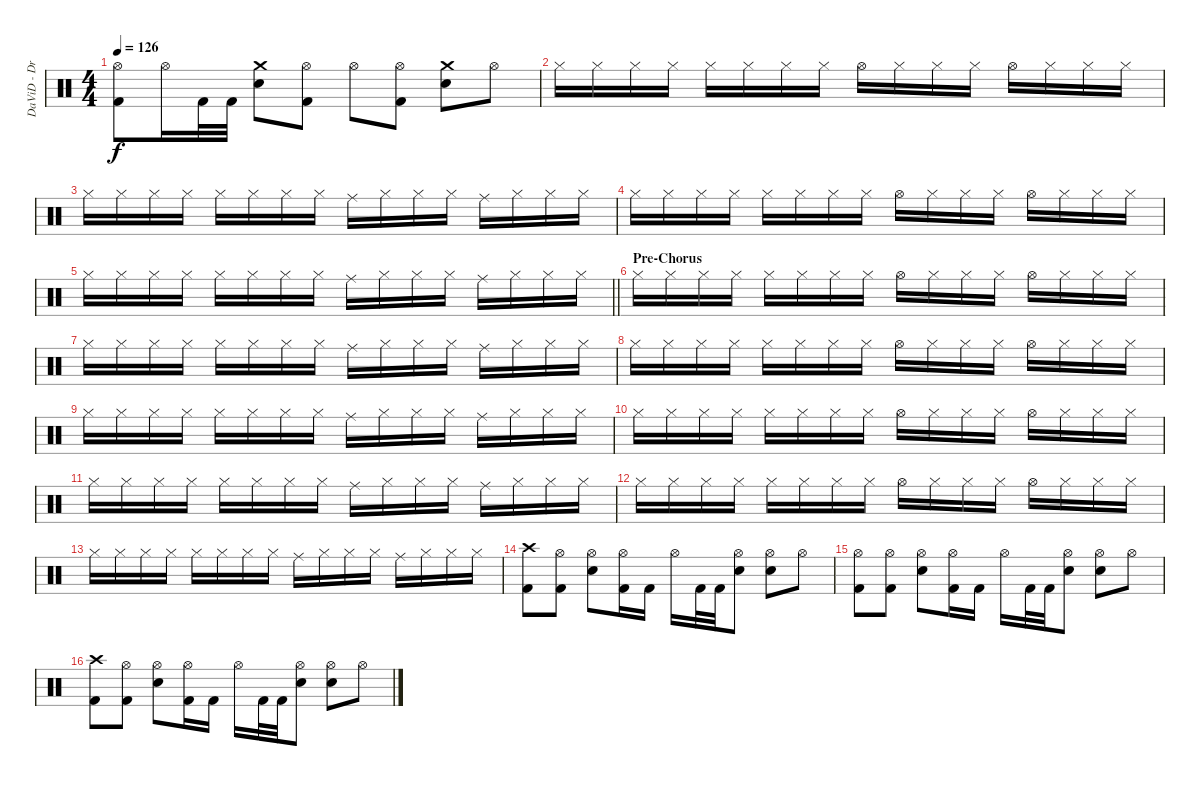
\track ("DaViD - DruMzZ" "DaViD - Dr") {instrument percussion}
\staff {score}
\articulation defaults
\ts (4 4)
\tempo 126
\clef neutral
\ks c
("Hi-Hat (open)" "Kick (hit) 2").8{dy f} "Hi-Hat (open)".16 "Kick (hit) 2".32 "Kick (hit) 2".32 ("Crash medium (hit)" "Snare (hit) 2").8 ("Hi-Hat (open)" "Kick (hit) 2").8 "Hi-Hat (open)".8 ("Hi-Hat (open)" "Kick (hit) 2").8 ("Crash medium (hit)" "Snare (hit) 2").8 "Hi-Hat (open)".8 |
"Hi-Hat (closed)".16 "Hi-Hat (closed)".16 "Hi-Hat (closed)".16 "Hi-Hat (closed)".16 "Hi-Hat (closed)".16 "Hi-Hat (closed)".16 "Hi-Hat (closed)".16 "Hi-Hat (closed)".16 "Hi-Hat (open)".16 "Hi-Hat (closed)".16 "Hi-Hat (closed)".16 "Hi-Hat (closed)".16 "Hi-Hat (open)".16 "Hi-Hat (closed)".16 "Hi-Hat (closed)".16 "Hi-Hat (closed)".16 |
"Hi-Hat (closed)".16 "Hi-Hat (closed)".16 "Hi-Hat (closed)".16 "Hi-Hat (closed)".16 "Hi-Hat (closed)".16 "Hi-Hat (closed)".16 "Hi-Hat (closed)".16 "Hi-Hat (closed)".16 "Ride (middle)".16 "Hi-Hat (closed)".16 "Hi-Hat (closed)".16 "Hi-Hat (closed)".16 "Ride (middle)".16 "Hi-Hat (closed)".16 "Hi-Hat (closed)".16 "Hi-Hat (closed)".16 |
"Hi-Hat (closed)".16 "Hi-Hat (closed)".16 "Hi-Hat (closed)".16 "Hi-Hat (closed)".16 "Hi-Hat (closed)".16 "Hi-Hat (closed)".16 "Hi-Hat (closed)".16 "Hi-Hat (closed)".16 "Hi-Hat (open)".16 "Hi-Hat (closed)".16 "Hi-Hat (closed)".16 "Hi-Hat (closed)".16 "Hi-Hat (open)".16 "Hi-Hat (closed)".16 "Hi-Hat (closed)".16 "Hi-Hat (closed)".16 |
\barLineRight lightlight "Hi-Hat (closed)".16 "Hi-Hat (closed)".16 "Hi-Hat (closed)".16 "Hi-Hat (closed)".16 "Hi-Hat (closed)".16 "Hi-Hat (closed)".16 "Hi-Hat (closed)".16 "Hi-Hat (closed)".16 "Ride (middle)".16 "Hi-Hat (closed)".16 "Hi-Hat (closed)".16 "Hi-Hat (closed)".16 "Ride (middle)".16 "Hi-Hat (closed)".16 "Hi-Hat (closed)".16 "Hi-Hat (closed)".16
|
\section ("" "Pre-Chorus")
"Hi-Hat (closed)".16 "Hi-Hat (closed)".16 "Hi-Hat (closed)".16 "Hi-Hat (closed)".16 "Hi-Hat (closed)".16 "Hi-Hat (closed)".16 "Hi-Hat (closed)".16 "Hi-Hat (closed)".16 "Hi-Hat (open)".16 "Hi-Hat (closed)".16 "Hi-Hat (closed)".16 "Hi-Hat (closed)".16 "Hi-Hat (open)".16 "Hi-Hat (closed)".16 "Hi-Hat (closed)".16 "Hi-Hat (closed)".16 |
"Hi-Hat (closed)".16 "Hi-Hat (closed)".16 "Hi-Hat (closed)".16 "Hi-Hat (closed)".16 "Hi-Hat (closed)".16 "Hi-Hat (closed)".16 "Hi-Hat (closed)".16 "Hi-Hat (closed)".16 "Ride (middle)".16 "Hi-Hat (closed)".16 "Hi-Hat (closed)".16 "Hi-Hat (closed)".16 "Ride (middle)".16 "Hi-Hat (closed)".16 "Hi-Hat (closed)".16 "Hi-Hat (closed)".16 |
"Hi-Hat (closed)".16 "Hi-Hat (closed)".16 "Hi-Hat (closed)".16 "Hi-Hat (closed)".16 "Hi-Hat (closed)".16 "Hi-Hat (closed)".16 "Hi-Hat (closed)".16 "Hi-Hat (closed)".16 "Hi-Hat (open)".16 "Hi-Hat (closed)".16 "Hi-Hat (closed)".16 "Hi-Hat (closed)".16 "Hi-Hat (open)".16 "Hi-Hat (closed)".16 "Hi-Hat (closed)".16 "Hi-Hat (closed)".16 |
"Hi-Hat (closed)".16 "Hi-Hat (closed)".16 "Hi-Hat (closed)".16 "Hi-Hat (closed)".16 "Hi-Hat (closed)".16 "Hi-Hat (closed)".16 "Hi-Hat (closed)".16 "Hi-Hat (closed)".16 "Ride (middle)".16 "Hi-Hat (closed)".16 "Hi-Hat (closed)".16 "Hi-Hat (closed)".16 "Ride (middle)".16 "Hi-Hat (closed)".16 "Hi-Hat (closed)".16 "Hi-Hat (closed)".16 |
"Hi-Hat (closed)".16 "Hi-Hat (closed)".16 "Hi-Hat (closed)".16 "Hi-Hat (closed)".16 "Hi-Hat (closed)".16 "Hi-Hat (closed)".16 "Hi-Hat (closed)".16 "Hi-Hat (closed)".16 "Hi-Hat (open)".16 "Hi-Hat (closed)".16 "Hi-Hat (closed)".16 "Hi-Hat (closed)".16 "Hi-Hat (open)".16 "Hi-Hat (closed)".16 "Hi-Hat (closed)".16 "Hi-Hat (closed)".16 |
"Hi-Hat (closed)".16 "Hi-Hat (closed)".16 "Hi-Hat (closed)".16 "Hi-Hat (closed)".16 "Hi-Hat (closed)".16 "Hi-Hat (closed)".16 "Hi-Hat (closed)".16 "Hi-Hat (closed)".16 "Ride (middle)".16 "Hi-Hat (closed)".16 "Hi-Hat (closed)".16 "Hi-Hat (closed)".16 "Ride (middle)".16 "Hi-Hat (closed)".16 "Hi-Hat (closed)".16 "Hi-Hat (closed)".16 |
"Hi-Hat (closed)".16 "Hi-Hat (closed)".16 "Hi-Hat (closed)".16 "Hi-Hat (closed)".16 "Hi-Hat (closed)".16 "Hi-Hat (closed)".16 "Hi-Hat (closed)".16 "Hi-Hat (closed)".16 "Hi-Hat (open)".16 "Hi-Hat (closed)".16 "Hi-Hat (closed)".16 "Hi-Hat (closed)".16 "Hi-Hat (open)".16 "Hi-Hat (closed)".16 "Hi-Hat (closed)".16 "Hi-Hat (closed)".16 |
"Hi-Hat (closed)".16 "Hi-Hat (closed)".16 "Hi-Hat (closed)".16 "Hi-Hat (closed)".16 "Hi-Hat (closed)".16 "Hi-Hat (closed)".16 "Hi-Hat (closed)".16 "Hi-Hat (closed)".16 "Ride (middle)".16 "Hi-Hat (closed)".16 "Hi-Hat (closed)".16 "Hi-Hat (closed)".16 "Ride (middle)".16 "Hi-Hat (closed)".16 "Hi-Hat (closed)".16 "Hi-Hat (closed)".16 |
("Crash high (hit)" "Kick (hit) 2").8 ("Hi-Hat (open)" "Kick (hit) 2").8 ("Hi-Hat (open)" "Snare (hit) 2").8 ("Hi-Hat (open)" "Kick (hit) 2").16 "Kick (hit) 2".16 "Hi-Hat (open)".16 "Kick (hit) 2".32 "Kick (hit) 2".32 ("Hi-Hat (open)" "Snare (hit) 2").8 ("Hi-Hat (open)" "Snare (hit) 2").8 "Hi-Hat (open)".8 |
("Hi-Hat (open)" "Kick (hit) 2").8 ("Hi-Hat (open)" "Kick (hit) 2").8 ("Hi-Hat (open)" "Snare (hit) 2").8 ("Hi-Hat (open)" "Kick (hit) 2").16 "Kick (hit) 2".16 "Hi-Hat (open)".16 "Kick (hit) 2".32 "Kick (hit) 2".32 ("Hi-Hat (open)" "Snare (hit) 2").8 ("Hi-Hat (open)" "Snare (hit) 2").8 "Hi-Hat (open)".8 |
("Crash high (hit)" "Kick (hit) 2").8 ("Hi-Hat (open)" "Kick (hit) 2").8 ("Hi-Hat (open)" "Snare (hit) 2").8 ("Hi-Hat (open)" "Kick (hit) 2").16 "Kick (hit) 2".16 "Hi-Hat (open)".16 "Kick (hit) 2".32 "Kick (hit) 2".32 ("Hi-Hat (open)" "Snare (hit) 2").8 ("Hi-Hat (open)" "Snare (hit) 2").8 "Hi-Hat (open)".8
